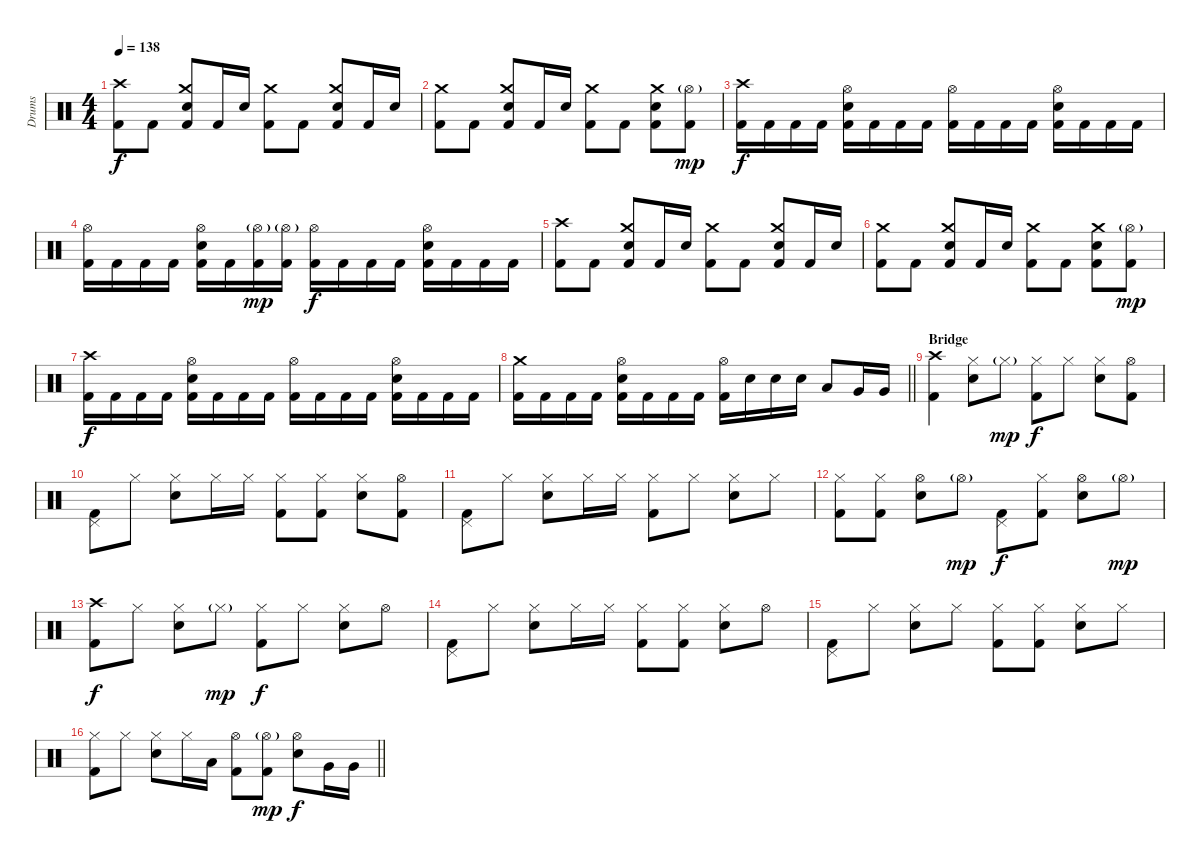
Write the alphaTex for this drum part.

\track ("Drums" "Drums") {instrument percussion}
\staff {score}
\articulation defaults
\ts (4 4)
\tempo 138
\clef neutral
\ks c
("Crash high (hit)" "Kick (hit) 2").8{dy f} "Kick (hit) 2".8 ("Crash medium (hit)" "Electric Snare (hit)" "Kick (hit) 2").8 "Kick (hit) 2".16 "Electric Snare (hit)".16 ("Crash medium (hit)" "Kick (hit) 2").8 "Kick (hit) 2".8 ("Crash medium (hit)" "Electric Snare (hit)" "Kick (hit) 2").8 "Kick (hit) 2".16 "Electric Snare (hit)".16 |
("Crash medium (hit)" "Kick (hit) 2").8 "Kick (hit) 2".8 ("Crash medium (hit)" "Electric Snare (hit)" "Kick (hit) 2").8 "Kick (hit) 2".16 "Electric Snare (hit)".16 ("Crash medium (hit)" "Kick (hit) 2").8 "Kick (hit) 2".8 ("Crash medium (hit)" "Electric Snare (hit)" "Kick (hit) 2").8 ("Hi-Hat (open)"{g} "Kick (hit) 2").8{dy mp} |
("Crash high (hit)" "Kick (hit) 2").16{dy f} "Kick (hit) 2".16 "Kick (hit) 2".16 "Kick (hit) 2".16 ("Hi-Hat (open)" "Electric Snare (hit)" "Kick (hit) 2").16 "Kick (hit) 2".16 "Kick (hit) 2".16 "Kick (hit) 2".16 ("Hi-Hat (open)" "Kick (hit) 2").16 "Kick (hit) 2".16 "Kick (hit) 2".16 "Kick (hit) 2".16 ("Hi-Hat (open)" "Electric Snare (hit)" "Kick (hit) 2").16 "Kick (hit) 2".16 "Kick (hit) 2".16 "Kick (hit) 2".16 |
("Hi-Hat (open)" "Kick (hit) 2").16 "Kick (hit) 2".16 "Kick (hit) 2".16 "Kick (hit) 2".16 ("Hi-Hat (open)" "Electric Snare (hit)" "Kick (hit) 2").16 "Kick (hit) 2".16 ("Hi-Hat (open)"{g} "Kick (hit) 2").16{dy mp} ("Hi-Hat (open)"{g} "Kick (hit) 2").16 ("Hi-Hat (open)" "Kick (hit) 2").16{dy f} "Kick (hit) 2".16 "Kick (hit) 2".16 "Kick (hit) 2".16 ("Hi-Hat (open)" "Electric Snare (hit)" "Kick (hit) 2").16 "Kick (hit) 2".16 "Kick (hit) 2".16 "Kick (hit) 2".16 |
("Crash high (hit)" "Kick (hit) 2").8 "Kick (hit) 2".8 ("Crash medium (hit)" "Electric Snare (hit)" "Kick (hit) 2").8 "Kick (hit) 2".16 "Electric Snare (hit)".16 ("Crash medium (hit)" "Kick (hit) 2").8 "Kick (hit) 2".8 ("Crash medium (hit)" "Electric Snare (hit)" "Kick (hit) 2").8 "Kick (hit) 2".16 "Electric Snare (hit)".16 |
("Crash medium (hit)" "Kick (hit) 2").8 "Kick (hit) 2".8 ("Crash medium (hit)" "Electric Snare (hit)" "Kick (hit) 2").8 "Kick (hit) 2".16 "Electric Snare (hit)".16 ("Crash medium (hit)" "Kick (hit) 2").8 "Kick (hit) 2".8 ("Crash medium (hit)" "Electric Snare (hit)" "Kick (hit) 2").8 ("Hi-Hat (open)"{g} "Kick (hit) 2").8{dy mp} |
("Crash high (hit)" "Kick (hit) 2").16{dy f} "Kick (hit) 2".16 "Kick (hit) 2".16 "Kick (hit) 2".16 ("Hi-Hat (open)" "Electric Snare (hit)" "Kick (hit) 2").16 "Kick (hit) 2".16 "Kick (hit) 2".16 "Kick (hit) 2".16 ("Hi-Hat (open)" "Kick (hit) 2").16 "Kick (hit) 2".16 "Kick (hit) 2".16 "Kick (hit) 2".16 ("Hi-Hat (open)" "Electric Snare (hit)" "Kick (hit) 2").16 "Kick (hit) 2".16 "Kick (hit) 2".16 "Kick (hit) 2".16 |
\barLineRight lightlight
("Crash medium (hit)" "Kick (hit) 2").16 "Kick (hit) 2".16 "Kick (hit) 2".16 "Kick (hit) 2".16 ("Hi-Hat (open)" "Electric Snare (hit)" "Kick (hit) 2").16 "Kick (hit) 2".16 "Kick (hit) 2".16 "Kick (hit) 2".16 ("Hi-Hat (open)" "Kick (hit) 2").16 "Electric Snare (hit)".16 "Electric Snare (hit)".16 "Electric Snare (hit)".16 "Low Tom (hit)".8 "Very Low Tom (hit)".16 "Very Low Tom (hit)".16 |
\section ("" "Bridge")
("Crash high (hit)" "Kick (hit) 2").4 ("Hi-Hat (closed)" "Electric Snare (hit)").8 "Hi-Hat (closed)"{g}.8{dy mp} ("Hi-Hat (closed)" "Kick (hit) 2").8{dy f} "Hi-Hat (closed)".8 ("Hi-Hat (closed)" "Electric Snare (hit)").8 ("Hi-Hat (open)" "Kick (hit) 2").8 |
("Pedal Hi-Hat (hit)" "Kick (hit) 2").8 "Hi-Hat (closed)".8 ("Hi-Hat (closed)" "Electric Snare (hit)").8 "Hi-Hat (closed)".16 "Hi-Hat (closed)".16 ("Hi-Hat (closed)" "Kick (hit) 2").8 ("Hi-Hat (closed)" "Kick (hit) 2").8 ("Hi-Hat (closed)" "Electric Snare (hit)").8 ("Hi-Hat (open)" "Kick (hit) 2").8 |
("Pedal Hi-Hat (hit)" "Kick (hit) 2").8 "Hi-Hat (closed)".8 ("Hi-Hat (closed)" "Electric Snare (hit)").8 "Hi-Hat (closed)".16 "Hi-Hat (closed)".16 ("Hi-Hat (closed)" "Kick (hit) 2").8 "Hi-Hat (closed)".8 ("Hi-Hat (closed)" "Electric Snare (hit)").8 "Hi-Hat (closed)".8 |
("Hi-Hat (closed)" "Kick (hit) 2").8 ("Hi-Hat (closed)" "Kick (hit) 2").8 ("Hi-Hat (open)" "Electric Snare (hit)").8 "Hi-Hat (open)"{g}.8{dy mp} ("Pedal Hi-Hat (hit)" "Kick (hit) 2").8{dy f} ("Hi-Hat (closed)" "Kick (hit) 2").8 ("Hi-Hat (open)" "Electric Snare (hit)").8 "Hi-Hat (open)"{g}.8{dy mp} |
("Crash high (hit)" "Kick (hit) 2").8{dy f} "Hi-Hat (closed)".8 ("Hi-Hat (closed)" "Electric Snare (hit)").8 "Hi-Hat (closed)"{g}.8{dy mp} ("Hi-Hat (closed)" "Kick (hit) 2").8{dy f} "Hi-Hat (closed)".8 ("Hi-Hat (closed)" "Electric Snare (hit)").8 "Hi-Hat (open)".8 |
("Pedal Hi-Hat (hit)" "Kick (hit) 2").8 "Hi-Hat (closed)".8 ("Hi-Hat (closed)" "Electric Snare (hit)").8 "Hi-Hat (closed)".16 "Hi-Hat (closed)".16 ("Hi-Hat (closed)" "Kick (hit) 2").8 ("Hi-Hat (closed)" "Kick (hit) 2").8 ("Hi-Hat (closed)" "Electric Snare (hit)").8 "Hi-Hat (open)".8 |
("Pedal Hi-Hat (hit)" "Kick (hit) 2").8 "Hi-Hat (closed)".8 ("Hi-Hat (closed)" "Electric Snare (hit)").8 "Hi-Hat (closed)".8 ("Hi-Hat (closed)" "Kick (hit) 2").8 ("Hi-Hat (closed)" "Kick (hit) 2").8 ("Hi-Hat (closed)" "Electric Snare (hit)").8 "Hi-Hat (closed)".8 |
\barLineRight lightlight
("Hi-Hat (closed)" "Kick (hit) 2").8 "Hi-Hat (closed)".8 ("Hi-Hat (closed)" "Electric Snare (hit)").8 "Hi-Hat (closed)".16 "Low Tom (hit)".16 ("Hi-Hat (open)" "Kick (hit) 2").8 ("Hi-Hat (open)"{g} "Kick (hit) 2").8{dy mp} ("Hi-Hat (open)" "Electric Snare (hit)").8{dy f} "Very Low Tom (hit)".16 "Very Low Tom (hit)".16
